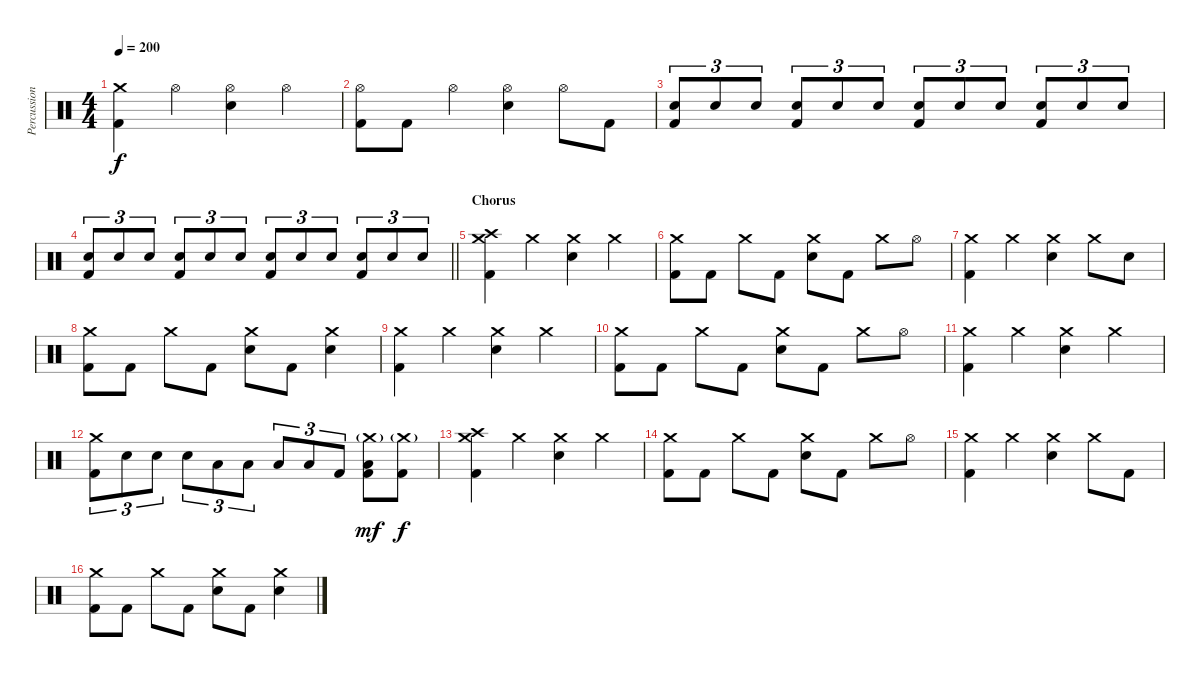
\track ("Percussion" "Percussion") {instrument percussion}
\staff {score}
\articulation defaults
\ts (4 4)
\tempo 200
\clef neutral
\ks c
("Crash medium (hit)" "Kick (hit) 2").4{dy f} "Hi-Hat (open)".4 ("Hi-Hat (open)" "Electric Snare (hit)").4 "Hi-Hat (open)".4 |
("Hi-Hat (open)" "Kick (hit) 2").8 "Kick (hit) 2".8 "Hi-Hat (open)".4 ("Hi-Hat (open)" "Electric Snare (hit)").4 "Hi-Hat (open)".8 "Kick (hit) 2".8 |
("Electric Snare (hit)" "Kick (hit) 2").8{tu (3 2)} "Electric Snare (hit)".8{tu (3 2)} "Electric Snare (hit)".8{tu (3 2)} ("Electric Snare (hit)" "Kick (hit) 2").8{tu (3 2)} "Electric Snare (hit)".8{tu (3 2)} "Electric Snare (hit)".8{tu (3 2)} ("Electric Snare (hit)" "Kick (hit) 2").8{tu (3 2)} "Electric Snare (hit)".8{tu (3 2)} "Electric Snare (hit)".8{tu (3 2)} ("Electric Snare (hit)" "Kick (hit) 2").8{tu (3 2)} "Electric Snare (hit)".8{tu (3 2)} "Electric Snare (hit)".8{tu (3 2)} |
\barLineRight lightlight
("Electric Snare (hit)" "Kick (hit) 2").8{tu (3 2)} "Electric Snare (hit)".8{tu (3 2)} "Electric Snare (hit)".8{tu (3 2)} ("Electric Snare (hit)" "Kick (hit) 2").8{tu (3 2)} "Electric Snare (hit)".8{tu (3 2)} "Electric Snare (hit)".8{tu (3 2)} ("Electric Snare (hit)" "Kick (hit) 2").8{tu (3 2)} "Electric Snare (hit)".8{tu (3 2)} "Electric Snare (hit)".8{tu (3 2)} ("Electric Snare (hit)" "Kick (hit) 2").8{tu (3 2)} "Electric Snare (hit)".8{tu (3 2)} "Electric Snare (hit)".8{tu (3 2)} |
\section ("" "Chorus")
("Crash medium (hit)" "Crash high (hit)" "Kick (hit) 2").4 "Crash medium (hit)".4 ("Crash medium (hit)" "Electric Snare (hit)").4 "Crash medium (hit)".4 |
("Crash medium (hit)" "Kick (hit) 2").8 "Kick (hit) 2".8 "Crash medium (hit)".8 "Kick (hit) 2".8 ("Crash medium (hit)" "Electric Snare (hit)").8 "Kick (hit) 2".8 "Crash medium (hit)".8 "Hi-Hat (open)".8 |
("Crash medium (hit)" "Kick (hit) 2").4 "Crash medium (hit)".4 ("Crash medium (hit)" "Electric Snare (hit)").4 "Crash medium (hit)".8 "Electric Snare (hit)".8 |
("Crash medium (hit)" "Kick (hit) 2").8 "Kick (hit) 2".8 "Crash medium (hit)".8 "Kick (hit) 2".8 ("Crash medium (hit)" "Electric Snare (hit)").8 "Kick (hit) 2".8 ("Crash medium (hit)" "Electric Snare (hit)").4 |
("Crash medium (hit)" "Kick (hit) 2").4 "Crash medium (hit)".4 ("Crash medium (hit)" "Electric Snare (hit)").4 "Crash medium (hit)".4 |
("Crash medium (hit)" "Kick (hit) 2").8 "Kick (hit) 2".8 "Crash medium (hit)".8 "Kick (hit) 2".8 ("Crash medium (hit)" "Electric Snare (hit)").8 "Kick (hit) 2".8 "Crash medium (hit)".8 "Hi-Hat (open)".8 |
("Crash medium (hit)" "Kick (hit) 2").4 "Crash medium (hit)".4 ("Crash medium (hit)" "Electric Snare (hit)").4 "Crash medium (hit)".4 |
("Crash medium (hit)" "Kick (hit) 2").8{tu (3 2)} "Electric Snare (hit)".8{tu (3 2)} "Electric Snare (hit)".8{tu (3 2)} "Electric Snare (hit)".8{tu (3 2)} "Low Tom (hit)".8{tu (3 2)} "Low Tom (hit)".8{tu (3 2)} "Low Tom (hit)".8{tu (3 2)} "Low Tom (hit)".8{tu (3 2)} "Kick (hit) 2".8{tu (3 2)} ("Crash medium (hit)"{g} "Low Tom (hit)" "Kick (hit) 2").8{dy mf} ("Crash medium (hit)"{g} "Kick (hit) 2").8{dy f} |
("Crash medium (hit)" "Crash high (hit)" "Kick (hit) 2").4 "Crash medium (hit)".4 ("Crash medium (hit)" "Electric Snare (hit)").4 "Crash medium (hit)".4 |
("Crash medium (hit)" "Kick (hit) 2").8 "Kick (hit) 2".8 "Crash medium (hit)".8 "Kick (hit) 2".8 ("Crash medium (hit)" "Electric Snare (hit)").8 "Kick (hit) 2".8 "Crash medium (hit)".8 "Hi-Hat (open)".8 |
("Crash medium (hit)" "Kick (hit) 2").4 "Crash medium (hit)".4 ("Crash medium (hit)" "Electric Snare (hit)").4 "Crash medium (hit)".8 "Kick (hit) 2".8 |
("Crash medium (hit)" "Kick (hit) 2").8 "Kick (hit) 2".8 "Crash medium (hit)".8 "Kick (hit) 2".8 ("Crash medium (hit)" "Electric Snare (hit)").8 "Kick (hit) 2".8 ("Crash medium (hit)" "Electric Snare (hit)").4
